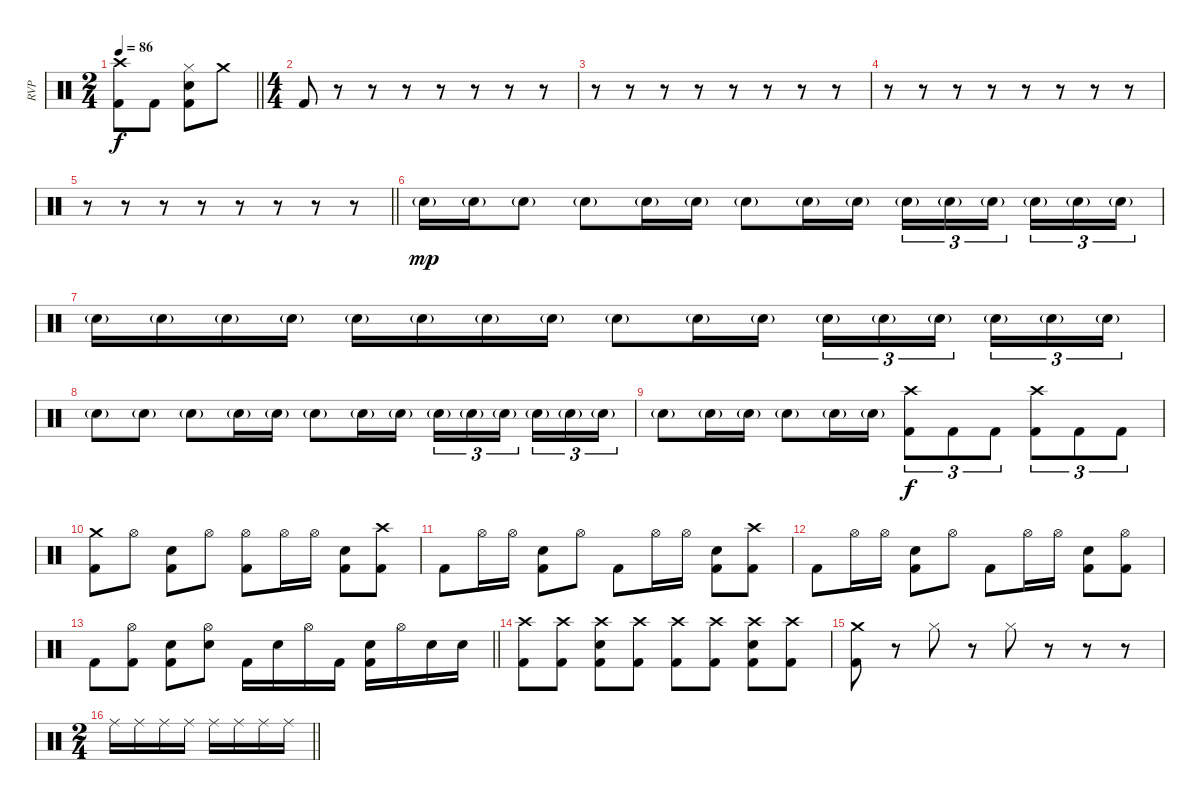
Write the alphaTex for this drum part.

\track ("RVP" "RVP") {instrument percussion}
\staff {score}
\articulation defaults
\ts (2 4)
\tempo 86
\clef neutral
\barLineRight lightlight
\ks c
("Crash high (hit)" "Kick (hit) 2").8{dy f} "Kick (hit) 2".8 ("Hi-Hat (closed)" "Electric Snare (hit)" "Kick (hit) 2").8 "Crash medium (hit)".8 |
\ts (4 4)
"Kick (hit) 2".8 r.8 r.8 r.8 r.8 r.8 r.8 r.8 |
r.8 r.8 r.8 r.8 r.8 r.8 r.8 r.8 |
r.8 r.8 r.8 r.8 r.8 r.8 r.8 r.8 |
\barLineRight lightlight
r.8 r.8 r.8 r.8 r.8 r.8 r.8 r.8 |
"Snare (hit) 2"{g}.16{dy mp} "Snare (hit) 2"{g}.16 "Snare (hit) 2"{g}.8 "Snare (hit) 2"{g}.8 "Snare (hit) 2"{g}.16 "Snare (hit) 2"{g}.16 "Snare (hit) 2"{g}.8 "Snare (hit) 2"{g}.16 "Snare (hit) 2"{g}.16 "Snare (hit) 2"{g}.16{tu (3 2)} "Snare (hit) 2"{g}.16{tu (3 2)} "Snare (hit) 2"{g}.16{tu (3 2) beam splitsecondary} "Snare (hit) 2"{g}.16{tu (3 2)} "Snare (hit) 2"{g}.16{tu (3 2)} "Snare (hit) 2"{g}.16{tu (3 2)} |
"Snare (hit) 2"{g}.16 "Snare (hit) 2"{g}.16 "Snare (hit) 2"{g}.16 "Snare (hit) 2"{g}.16 "Snare (hit) 2"{g}.16 "Snare (hit) 2"{g}.16 "Snare (hit) 2"{g}.16 "Snare (hit) 2"{g}.16 "Snare (hit) 2"{g}.8 "Snare (hit) 2"{g}.16 "Snare (hit) 2"{g}.16 "Snare (hit) 2"{g}.16{tu (3 2)} "Snare (hit) 2"{g}.16{tu (3 2)} "Snare (hit) 2"{g}.16{tu (3 2) beam splitsecondary} "Snare (hit) 2"{g}.16{tu (3 2)} "Snare (hit) 2"{g}.16{tu (3 2)} "Snare (hit) 2"{g}.16{tu (3 2)} |
"Snare (hit) 2"{g}.8 "Snare (hit) 2"{g}.8 "Snare (hit) 2"{g}.8 "Snare (hit) 2"{g}.16 "Snare (hit) 2"{g}.16 "Snare (hit) 2"{g}.8 "Snare (hit) 2"{g}.16 "Snare (hit) 2"{g}.16 "Snare (hit) 2"{g}.16{tu (3 2)} "Snare (hit) 2"{g}.16{tu (3 2)} "Snare (hit) 2"{g}.16{tu (3 2) beam splitsecondary} "Snare (hit) 2"{g}.16{tu (3 2)} "Snare (hit) 2"{g}.16{tu (3 2)} "Snare (hit) 2"{g}.16{tu (3 2)} |
"Snare (hit) 2"{g}.8 "Snare (hit) 2"{g}.16 "Snare (hit) 2"{g}.16 "Snare (hit) 2"{g}.8 "Snare (hit) 2"{g}.16 "Snare (hit) 2"{g}.16 ("Crash high (hit)" "Kick (hit) 2").8{tu (3 2) dy f} "Kick (hit) 2".8{tu (3 2)} "Kick (hit) 2".8{tu (3 2)} ("Crash high (hit)" "Kick (hit) 2").8{tu (3 2)} "Kick (hit) 2".8{tu (3 2)} "Kick (hit) 2".8{tu (3 2)} |
("Crash medium (hit)" "Kick (hit) 2").8 "Hi-Hat (open)".8 ("Electric Snare (hit)" "Kick (hit) 2").8 "Hi-Hat (open)".8 ("Hi-Hat (open)" "Kick (hit) 2").8 "Hi-Hat (open)".16 "Hi-Hat (open)".16 ("Electric Snare (hit)" "Kick (hit) 2").8 ("Crash high (hit)" "Kick (hit) 2").8 |
"Kick (hit) 2".8 "Hi-Hat (open)".16 "Hi-Hat (open)".16 ("Electric Snare (hit)" "Kick (hit) 2").8 "Hi-Hat (open)".8 "Kick (hit) 2".8 "Hi-Hat (open)".16 "Hi-Hat (open)".16 ("Electric Snare (hit)" "Kick (hit) 2").8 ("Crash high (hit)" "Kick (hit) 2").8 |
"Kick (hit) 2".8 "Hi-Hat (open)".16 "Hi-Hat (open)".16 ("Electric Snare (hit)" "Kick (hit) 2").8 "Hi-Hat (open)".8 "Kick (hit) 2".8 "Hi-Hat (open)".16 "Hi-Hat (open)".16 ("Electric Snare (hit)" "Kick (hit) 2").8 ("Hi-Hat (open)" "Kick (hit) 2").8 |
\barLineRight lightlight "Kick (hit) 2".8
("Hi-Hat (open)" "Kick (hit) 2").8 ("Electric Snare (hit)" "Kick (hit) 2").8 ("Hi-Hat (open)" "Electric Snare (hit)").8 "Kick (hit) 2".16 "Electric Snare (hit)".16 "Hi-Hat (open)".16 "Kick (hit) 2".16 ("Electric Snare (hit)" "Kick (hit) 2").16 "Hi-Hat (open)".16 "Electric Snare (hit)".16 "Electric Snare (hit)".16 |
("Crash high (hit)" "Kick (hit) 2").8 ("Crash high (hit)" "Kick (hit) 2").8 ("Crash high (hit)" "Electric Snare (hit)" "Kick (hit) 2").8 ("Crash high (hit)" "Kick (hit) 2").8 ("Crash high (hit)" "Kick (hit) 2").8 ("Crash high (hit)" "Kick (hit) 2").8 ("Crash high (hit)" "Electric Snare (hit)" "Kick (hit) 2").8 ("Crash high (hit)" "Kick (hit) 2").8 |
("Crash medium (hit)" "Kick (hit) 2").8 r.8 "Hi-Hat (closed)".8 r.8 "Hi-Hat (closed)".8 r.8 r.8 r.8 |
\ts (2 4)
\barLineRight lightlight "Ride (middle)".16 "Ride (middle)".16 "Ride (middle)".16 "Ride (middle)".16 "Ride (middle)".16 "Ride (middle)".16 "Ride (middle)".16 "Ride (middle)".16
